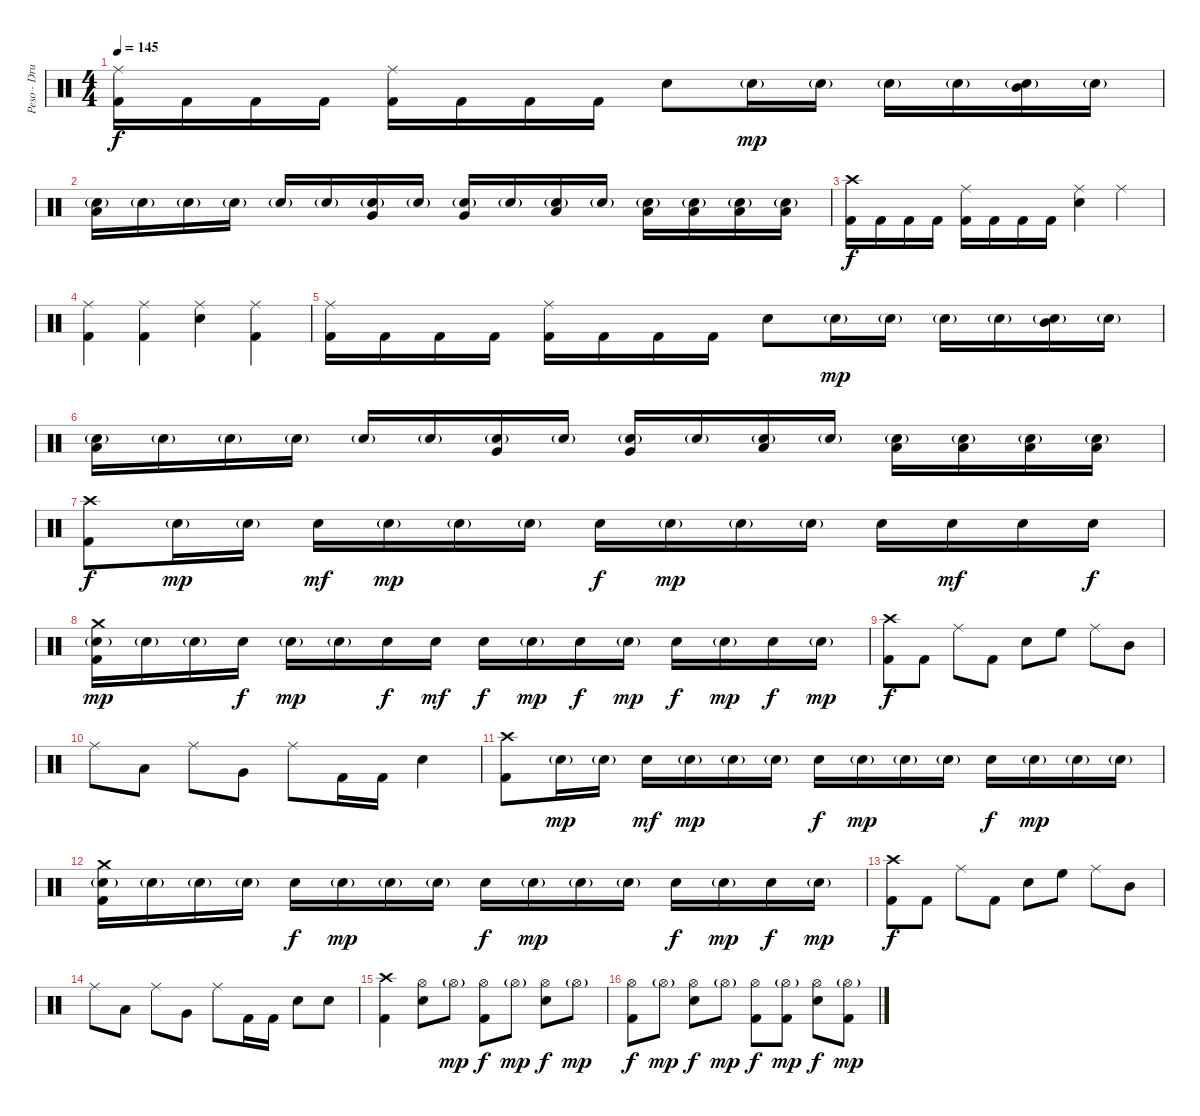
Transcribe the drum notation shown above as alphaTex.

\track ("Peso - Drums" "Peso - Dru") {instrument percussion}
\staff {score}
\articulation defaults
\ts (4 4)
\tempo 145
\clef neutral
\ks c
("Ride (middle)" "Kick (hit) 2").16{dy f} "Kick (hit) 2".16 "Kick (hit) 2".16 "Kick (hit) 2".16 ("Ride (middle)" "Kick (hit) 2").16 "Kick (hit) 2".16 "Kick (hit) 2".16 "Kick (hit) 2".16 "Electric Snare (hit)".8 "Electric Snare (hit)"{g}.16{dy mp} "Electric Snare (hit)"{g}.16 "Electric Snare (hit)"{g}.16 "Electric Snare (hit)"{g}.16 ("Mid Tom (hit)" "Electric Snare (hit)"{g}).16 "Electric Snare (hit)"{g}.16 |
("Low Tom (hit)" "Electric Snare (hit)"{g}).16 "Electric Snare (hit)"{g}.16 "Electric Snare (hit)"{g}.16 "Electric Snare (hit)"{g}.16 "Electric Snare (hit)"{g}.16 "Electric Snare (hit)"{g}.16 ("Very Low Tom (hit)" "Electric Snare (hit)"{g}).16 "Electric Snare (hit)"{g}.16 ("Very Low Tom (hit)" "Electric Snare (hit)"{g}).16 "Electric Snare (hit)"{g}.16 ("Electric Snare (hit)"{g} "Low Floor Tom (hit)").16 "Electric Snare (hit)"{g}.16 ("Electric Snare (hit)"{g} "Low Floor Tom (hit)").16 ("Electric Snare (hit)"{g} "Low Floor Tom (hit)").16 ("Electric Snare (hit)"{g} "Low Floor Tom (hit)").16 ("Electric Snare (hit)"{g} "Low Floor Tom (hit)").16 |
("Crash high (hit)" "Kick (hit) 2").16{dy f} "Kick (hit) 2".16 "Kick (hit) 2".16 "Kick (hit) 2".16 ("Ride (middle)" "Kick (hit) 2").16 "Kick (hit) 2".16 "Kick (hit) 2".16 "Kick (hit) 2".16 ("Ride (middle)" "Electric Snare (hit)").4 "Ride (middle)".4 |
("Ride (middle)" "Kick (hit) 2").4 ("Ride (middle)" "Kick (hit) 2").4 ("Ride (middle)" "Electric Snare (hit)").4 ("Ride (middle)" "Kick (hit) 2").4 |
("Ride (middle)" "Kick (hit) 2").16 "Kick (hit) 2".16 "Kick (hit) 2".16 "Kick (hit) 2".16 ("Ride (middle)" "Kick (hit) 2").16 "Kick (hit) 2".16 "Kick (hit) 2".16 "Kick (hit) 2".16 "Electric Snare (hit)".8 "Electric Snare (hit)"{g}.16{dy mp} "Electric Snare (hit)"{g}.16 "Electric Snare (hit)"{g}.16 "Electric Snare (hit)"{g}.16 ("Mid Tom (hit)" "Electric Snare (hit)"{g}).16 "Electric Snare (hit)"{g}.16 |
("Low Tom (hit)" "Electric Snare (hit)"{g}).16 "Electric Snare (hit)"{g}.16 "Electric Snare (hit)"{g}.16 "Electric Snare (hit)"{g}.16 "Electric Snare (hit)"{g}.16 "Electric Snare (hit)"{g}.16 ("Very Low Tom (hit)" "Electric Snare (hit)"{g}).16 "Electric Snare (hit)"{g}.16 ("Very Low Tom (hit)" "Electric Snare (hit)"{g}).16 "Electric Snare (hit)"{g}.16 ("Electric Snare (hit)"{g} "Low Floor Tom (hit)").16 "Electric Snare (hit)"{g}.16 ("Electric Snare (hit)"{g} "Low Floor Tom (hit)").16 ("Electric Snare (hit)"{g} "Low Floor Tom (hit)").16 ("Electric Snare (hit)"{g} "Low Floor Tom (hit)").16 ("Electric Snare (hit)"{g} "Low Floor Tom (hit)").16 |
("Crash high (hit)" "Kick (hit) 2").8{dy f} "Electric Snare (hit)"{g}.16{dy mp} "Electric Snare (hit)"{g}.16 "Electric Snare (hit)".16{dy mf} "Electric Snare (hit)"{g}.16{dy mp} "Electric Snare (hit)"{g}.16 "Electric Snare (hit)"{g}.16 "Electric Snare (hit)".16{dy f} "Electric Snare (hit)"{g}.16{dy mp} "Electric Snare (hit)"{g}.16 "Electric Snare (hit)"{g}.16 "Electric Snare (hit)".16 "Electric Snare (hit)".16{dy mf} "Electric Snare (hit)".16 "Electric Snare (hit)".16{dy f} |
("Crash medium (hit)" "Electric Snare (hit)"{g} "Kick (hit) 2").16{dy mp} "Electric Snare (hit)"{g}.16 "Electric Snare (hit)"{g}.16 "Electric Snare (hit)".16{dy f} "Electric Snare (hit)"{g}.16{dy mp} "Electric Snare (hit)"{g}.16 "Electric Snare (hit)".16{dy f} "Electric Snare (hit)".16{dy mf} "Electric Snare (hit)".16{dy f} "Electric Snare (hit)"{g}.16{dy mp} "Electric Snare (hit)".16{dy f} "Electric Snare (hit)"{g}.16{dy mp} "Electric Snare (hit)".16{dy f} "Electric Snare (hit)"{g}.16{dy mp} "Electric Snare (hit)".16{dy f} "Electric Snare (hit)"{g}.16{dy mp} |
("Crash high (hit)" "Kick (hit) 2").8{dy f} "Kick (hit) 2".8 "Ride (middle)".8 "Kick (hit) 2".8 "Electric Snare (hit)".8 "High Floor Tom (hit)".8 "Ride (middle)".8 "Mid Tom (hit)".8 |
"Ride (middle)".8 "Low Tom (hit)".8 "Ride (middle)".8 "Very Low Tom (hit)".8 "Ride (middle)".8 "Kick (hit) 2".16 "Kick (hit) 2".16 "Electric Snare (hit)".4 |
("Crash high (hit)" "Kick (hit) 2").8 "Electric Snare (hit)"{g}.16{dy mp} "Electric Snare (hit)"{g}.16 "Electric Snare (hit)".16{dy mf} "Electric Snare (hit)"{g}.16{dy mp} "Electric Snare (hit)"{g}.16 "Electric Snare (hit)"{g}.16 "Electric Snare (hit)".16{dy f} "Electric Snare (hit)"{g}.16{dy mp} "Electric Snare (hit)"{g}.16 "Electric Snare (hit)"{g}.16 "Electric Snare (hit)".16{dy f} "Electric Snare (hit)"{g}.16{dy mp} "Electric Snare (hit)"{g}.16 "Electric Snare (hit)"{g}.16 |
("Crash medium (hit)" "Electric Snare (hit)"{g} "Kick (hit) 2").16 "Electric Snare (hit)"{g}.16 "Electric Snare (hit)"{g}.16 "Electric Snare (hit)"{g}.16 "Electric Snare (hit)".16{dy f} "Electric Snare (hit)"{g}.16{dy mp} "Electric Snare (hit)"{g}.16 "Electric Snare (hit)"{g}.16 "Electric Snare (hit)".16{dy f} "Electric Snare (hit)"{g}.16{dy mp} "Electric Snare (hit)"{g}.16 "Electric Snare (hit)"{g}.16 "Electric Snare (hit)".16{dy f} "Electric Snare (hit)"{g}.16{dy mp} "Electric Snare (hit)".16{dy f} "Electric Snare (hit)"{g}.16{dy mp} |
("Crash high (hit)" "Kick (hit) 2").8{dy f} "Kick (hit) 2".8 "Ride (middle)".8 "Kick (hit) 2".8 "Electric Snare (hit)".8 "High Floor Tom (hit)".8 "Ride (middle)".8 "Mid Tom (hit)".8 |
"Ride (middle)".8 "Low Tom (hit)".8 "Ride (middle)".8 "Very Low Tom (hit)".8 "Ride (middle)".8 "Kick (hit) 2".16 "Kick (hit) 2".16 "Electric Snare (hit)".8 "Electric Snare (hit)".8 |
("Crash high (hit)" "Kick (hit) 2").4 ("Hi-Hat (open)" "Electric Snare (hit)").8 "Hi-Hat (open)"{g}.8{dy mp} ("Hi-Hat (open)" "Kick (hit) 2").8{dy f} "Hi-Hat (open)"{g}.8{dy mp} ("Hi-Hat (open)" "Electric Snare (hit)").8{dy f} "Hi-Hat (open)"{g}.8{dy mp} |
("Hi-Hat (open)" "Kick (hit) 2").8{dy f} "Hi-Hat (open)"{g}.8{dy mp} ("Hi-Hat (open)" "Electric Snare (hit)").8{dy f} "Hi-Hat (open)"{g}.8{dy mp} ("Hi-Hat (open)" "Kick (hit) 2").8{dy f} ("Hi-Hat (open)"{g} "Kick (hit) 2").8{dy mp} ("Hi-Hat (open)" "Electric Snare (hit)").8{dy f} ("Hi-Hat (open)"{g} "Kick (hit) 2").8{dy mp}
